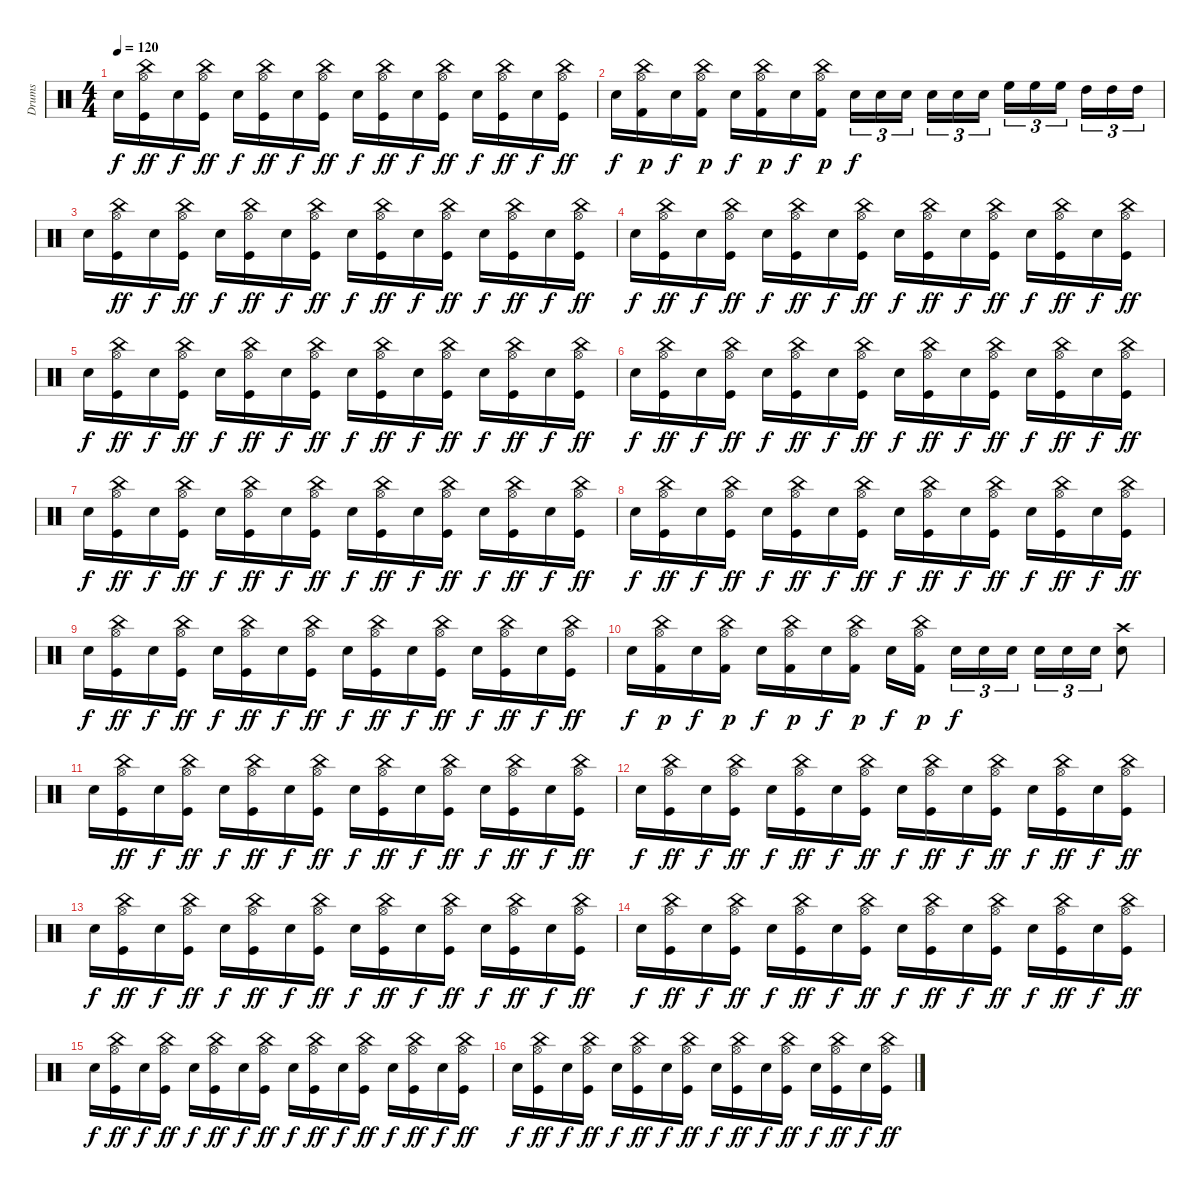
\track ("Drums" "Drums") {instrument percussion}
\staff {score}
\articulation defaults
\ts (4 4)
\tempo 120
\clef neutral
\ks c "Electric Snare (hit)".16{dy f}
("China (hit)" "Hi-Hat (open)" "Kick (hit)").16{dy ff} "Electric Snare (hit)".16{dy f} ("China (hit)" "Hi-Hat (open)" "Kick (hit)").16{dy ff} "Electric Snare (hit)".16{dy f} ("China (hit)" "Hi-Hat (open)" "Kick (hit)").16{dy ff} "Electric Snare (hit)".16{dy f} ("China (hit)" "Hi-Hat (open)" "Kick (hit)").16{dy ff} "Electric Snare (hit)".16{dy f} ("China (hit)" "Hi-Hat (open)" "Kick (hit)").16{dy ff} "Electric Snare (hit)".16{dy f} ("China (hit)" "Hi-Hat (open)" "Kick (hit)").16{dy ff} "Electric Snare (hit)".16{dy f} ("China (hit)" "Hi-Hat (open)" "Kick (hit)").16{dy ff} "Electric Snare (hit)".16{dy f} ("China (hit)" "Hi-Hat (open)" "Kick (hit)").16{dy ff} |
"Electric Snare (hit)".16{dy f} ("Hi-Hat (open)" "China (hit)" "Kick (hit) 2").16{dy p} "Electric Snare (hit)".16{dy f} ("Hi-Hat (open)" "China (hit)" "Kick (hit) 2").16{dy p} "Electric Snare (hit)".16{dy f} ("Hi-Hat (open)" "China (hit)" "Kick (hit) 2").16{dy p} "Electric Snare (hit)".16{dy f} ("Hi-Hat (open)" "China (hit)" "Kick (hit) 2").16{dy p} "Electric Snare (hit)".16{tu (3 2) dy f} "Electric Snare (hit)".16{tu (3 2)} "Electric Snare (hit)".16{tu (3 2)} "Electric Snare (hit)".16{tu (3 2)} "Electric Snare (hit)".16{tu (3 2)} "Electric Snare (hit)".16{tu (3 2)} "High Floor Tom (hit)".16{tu (3 2)} "High Floor Tom (hit)".16{tu (3 2)} "High Floor Tom (hit)".16{tu (3 2)} "High Tom (hit)".16{tu (3 2)} "High Tom (hit)".16{tu (3 2)} "High Tom (hit)".16{tu (3 2)} |
"Electric Snare (hit)".16 ("China (hit)" "Hi-Hat (open)" "Kick (hit)").16{dy ff} "Electric Snare (hit)".16{dy f} ("China (hit)" "Hi-Hat (open)" "Kick (hit)").16{dy ff} "Electric Snare (hit)".16{dy f} ("China (hit)" "Hi-Hat (open)" "Kick (hit)").16{dy ff} "Electric Snare (hit)".16{dy f} ("China (hit)" "Hi-Hat (open)" "Kick (hit)").16{dy ff} "Electric Snare (hit)".16{dy f} ("China (hit)" "Hi-Hat (open)" "Kick (hit)").16{dy ff} "Electric Snare (hit)".16{dy f} ("China (hit)" "Hi-Hat (open)" "Kick (hit)").16{dy ff} "Electric Snare (hit)".16{dy f} ("China (hit)" "Hi-Hat (open)" "Kick (hit)").16{dy ff} "Electric Snare (hit)".16{dy f} ("China (hit)" "Hi-Hat (open)" "Kick (hit)").16{dy ff} |
"Electric Snare (hit)".16{dy f} ("China (hit)" "Hi-Hat (open)" "Kick (hit)").16{dy ff} "Electric Snare (hit)".16{dy f} ("China (hit)" "Hi-Hat (open)" "Kick (hit)").16{dy ff} "Electric Snare (hit)".16{dy f} ("China (hit)" "Hi-Hat (open)" "Kick (hit)").16{dy ff} "Electric Snare (hit)".16{dy f} ("China (hit)" "Hi-Hat (open)" "Kick (hit)").16{dy ff} "Electric Snare (hit)".16{dy f} ("China (hit)" "Hi-Hat (open)" "Kick (hit)").16{dy ff} "Electric Snare (hit)".16{dy f} ("China (hit)" "Hi-Hat (open)" "Kick (hit)").16{dy ff} "Electric Snare (hit)".16{dy f} ("China (hit)" "Hi-Hat (open)" "Kick (hit)").16{dy ff} "Electric Snare (hit)".16{dy f} ("China (hit)" "Hi-Hat (open)" "Kick (hit)").16{dy ff} |
"Electric Snare (hit)".16{dy f} ("China (hit)" "Hi-Hat (open)" "Kick (hit)").16{dy ff} "Electric Snare (hit)".16{dy f} ("China (hit)" "Hi-Hat (open)" "Kick (hit)").16{dy ff} "Electric Snare (hit)".16{dy f} ("China (hit)" "Hi-Hat (open)" "Kick (hit)").16{dy ff} "Electric Snare (hit)".16{dy f} ("China (hit)" "Hi-Hat (open)" "Kick (hit)").16{dy ff} "Electric Snare (hit)".16{dy f} ("China (hit)" "Hi-Hat (open)" "Kick (hit)").16{dy ff} "Electric Snare (hit)".16{dy f} ("China (hit)" "Hi-Hat (open)" "Kick (hit)").16{dy ff} "Electric Snare (hit)".16{dy f} ("China (hit)" "Hi-Hat (open)" "Kick (hit)").16{dy ff} "Electric Snare (hit)".16{dy f} ("China (hit)" "Hi-Hat (open)" "Kick (hit)").16{dy ff} |
"Electric Snare (hit)".16{dy f} ("China (hit)" "Hi-Hat (open)" "Kick (hit)").16{dy ff} "Electric Snare (hit)".16{dy f} ("China (hit)" "Hi-Hat (open)" "Kick (hit)").16{dy ff} "Electric Snare (hit)".16{dy f} ("China (hit)" "Hi-Hat (open)" "Kick (hit)").16{dy ff} "Electric Snare (hit)".16{dy f} ("China (hit)" "Hi-Hat (open)" "Kick (hit)").16{dy ff} "Electric Snare (hit)".16{dy f} ("China (hit)" "Hi-Hat (open)" "Kick (hit)").16{dy ff} "Electric Snare (hit)".16{dy f} ("China (hit)" "Hi-Hat (open)" "Kick (hit)").16{dy ff} "Electric Snare (hit)".16{dy f} ("China (hit)" "Hi-Hat (open)" "Kick (hit)").16{dy ff} "Electric Snare (hit)".16{dy f} ("China (hit)" "Hi-Hat (open)" "Kick (hit)").16{dy ff} |
"Electric Snare (hit)".16{dy f} ("China (hit)" "Hi-Hat (open)" "Kick (hit)").16{dy ff} "Electric Snare (hit)".16{dy f} ("China (hit)" "Hi-Hat (open)" "Kick (hit)").16{dy ff} "Electric Snare (hit)".16{dy f} ("China (hit)" "Hi-Hat (open)" "Kick (hit)").16{dy ff} "Electric Snare (hit)".16{dy f} ("China (hit)" "Hi-Hat (open)" "Kick (hit)").16{dy ff} "Electric Snare (hit)".16{dy f} ("China (hit)" "Hi-Hat (open)" "Kick (hit)").16{dy ff} "Electric Snare (hit)".16{dy f} ("China (hit)" "Hi-Hat (open)" "Kick (hit)").16{dy ff} "Electric Snare (hit)".16{dy f} ("China (hit)" "Hi-Hat (open)" "Kick (hit)").16{dy ff} "Electric Snare (hit)".16{dy f} ("China (hit)" "Hi-Hat (open)" "Kick (hit)").16{dy ff} |
"Electric Snare (hit)".16{dy f} ("China (hit)" "Hi-Hat (open)" "Kick (hit)").16{dy ff} "Electric Snare (hit)".16{dy f} ("China (hit)" "Hi-Hat (open)" "Kick (hit)").16{dy ff} "Electric Snare (hit)".16{dy f} ("China (hit)" "Hi-Hat (open)" "Kick (hit)").16{dy ff} "Electric Snare (hit)".16{dy f} ("China (hit)" "Hi-Hat (open)" "Kick (hit)").16{dy ff} "Electric Snare (hit)".16{dy f} ("China (hit)" "Hi-Hat (open)" "Kick (hit)").16{dy ff} "Electric Snare (hit)".16{dy f} ("China (hit)" "Hi-Hat (open)" "Kick (hit)").16{dy ff} "Electric Snare (hit)".16{dy f} ("China (hit)" "Hi-Hat (open)" "Kick (hit)").16{dy ff} "Electric Snare (hit)".16{dy f} ("China (hit)" "Hi-Hat (open)" "Kick (hit)").16{dy ff} |
"Electric Snare (hit)".16{dy f} ("China (hit)" "Hi-Hat (open)" "Kick (hit)").16{dy ff} "Electric Snare (hit)".16{dy f} ("China (hit)" "Hi-Hat (open)" "Kick (hit)").16{dy ff} "Electric Snare (hit)".16{dy f} ("China (hit)" "Hi-Hat (open)" "Kick (hit)").16{dy ff} "Electric Snare (hit)".16{dy f} ("China (hit)" "Hi-Hat (open)" "Kick (hit)").16{dy ff} "Electric Snare (hit)".16{dy f} ("China (hit)" "Hi-Hat (open)" "Kick (hit)").16{dy ff} "Electric Snare (hit)".16{dy f} ("China (hit)" "Hi-Hat (open)" "Kick (hit)").16{dy ff} "Electric Snare (hit)".16{dy f} ("China (hit)" "Hi-Hat (open)" "Kick (hit)").16{dy ff} "Electric Snare (hit)".16{dy f} ("China (hit)" "Hi-Hat (open)" "Kick (hit)").16{dy ff} |
"Electric Snare (hit)".16{dy f} ("Hi-Hat (open)" "China (hit)" "Kick (hit) 2").16{dy p} "Electric Snare (hit)".16{dy f} ("Hi-Hat (open)" "China (hit)" "Kick (hit) 2").16{dy p} "Electric Snare (hit)".16{dy f} ("Hi-Hat (open)" "China (hit)" "Kick (hit) 2").16{dy p} "Electric Snare (hit)".16{dy f} ("Hi-Hat (open)" "China (hit)" "Kick (hit) 2").16{dy p} "Electric Snare (hit)".16{dy f} ("Hi-Hat (open)" "China (hit)" "Kick (hit) 2").16{dy p} "Electric Snare (hit)".16{tu (3 2) dy f} "Electric Snare (hit)".16{tu (3 2)} "Electric Snare (hit)".16{tu (3 2)} "Electric Snare (hit)".16{tu (3 2)} "Electric Snare (hit)".16{tu (3 2)} "Electric Snare (hit)".16{tu (3 2)} ("Crash high (hit)" "Electric Snare (hit)").8 |
"Electric Snare (hit)".16 ("China (hit)" "Hi-Hat (open)" "Kick (hit)").16{dy ff} "Electric Snare (hit)".16{dy f} ("China (hit)" "Hi-Hat (open)" "Kick (hit)").16{dy ff} "Electric Snare (hit)".16{dy f} ("China (hit)" "Hi-Hat (open)" "Kick (hit)").16{dy ff} "Electric Snare (hit)".16{dy f} ("China (hit)" "Hi-Hat (open)" "Kick (hit)").16{dy ff} "Electric Snare (hit)".16{dy f} ("China (hit)" "Hi-Hat (open)" "Kick (hit)").16{dy ff} "Electric Snare (hit)".16{dy f} ("China (hit)" "Hi-Hat (open)" "Kick (hit)").16{dy ff} "Electric Snare (hit)".16{dy f} ("China (hit)" "Hi-Hat (open)" "Kick (hit)").16{dy ff} "Electric Snare (hit)".16{dy f} ("China (hit)" "Hi-Hat (open)" "Kick (hit)").16{dy ff} |
"Electric Snare (hit)".16{dy f} ("China (hit)" "Hi-Hat (open)" "Kick (hit)").16{dy ff} "Electric Snare (hit)".16{dy f} ("China (hit)" "Hi-Hat (open)" "Kick (hit)").16{dy ff} "Electric Snare (hit)".16{dy f} ("China (hit)" "Hi-Hat (open)" "Kick (hit)").16{dy ff} "Electric Snare (hit)".16{dy f} ("China (hit)" "Hi-Hat (open)" "Kick (hit)").16{dy ff} "Electric Snare (hit)".16{dy f} ("China (hit)" "Hi-Hat (open)" "Kick (hit)").16{dy ff} "Electric Snare (hit)".16{dy f} ("China (hit)" "Hi-Hat (open)" "Kick (hit)").16{dy ff} "Electric Snare (hit)".16{dy f} ("China (hit)" "Hi-Hat (open)" "Kick (hit)").16{dy ff} "Electric Snare (hit)".16{dy f} ("China (hit)" "Hi-Hat (open)" "Kick (hit)").16{dy ff} |
"Electric Snare (hit)".16{dy f} ("China (hit)" "Hi-Hat (open)" "Kick (hit)").16{dy ff} "Electric Snare (hit)".16{dy f} ("China (hit)" "Hi-Hat (open)" "Kick (hit)").16{dy ff} "Electric Snare (hit)".16{dy f} ("China (hit)" "Hi-Hat (open)" "Kick (hit)").16{dy ff} "Electric Snare (hit)".16{dy f} ("China (hit)" "Hi-Hat (open)" "Kick (hit)").16{dy ff} "Electric Snare (hit)".16{dy f} ("China (hit)" "Hi-Hat (open)" "Kick (hit)").16{dy ff} "Electric Snare (hit)".16{dy f} ("China (hit)" "Hi-Hat (open)" "Kick (hit)").16{dy ff} "Electric Snare (hit)".16{dy f} ("China (hit)" "Hi-Hat (open)" "Kick (hit)").16{dy ff} "Electric Snare (hit)".16{dy f} ("China (hit)" "Hi-Hat (open)" "Kick (hit)").16{dy ff} |
"Electric Snare (hit)".16{dy f} ("China (hit)" "Hi-Hat (open)" "Kick (hit)").16{dy ff} "Electric Snare (hit)".16{dy f} ("China (hit)" "Hi-Hat (open)" "Kick (hit)").16{dy ff} "Electric Snare (hit)".16{dy f} ("China (hit)" "Hi-Hat (open)" "Kick (hit)").16{dy ff} "Electric Snare (hit)".16{dy f} ("China (hit)" "Hi-Hat (open)" "Kick (hit)").16{dy ff} "Electric Snare (hit)".16{dy f} ("China (hit)" "Hi-Hat (open)" "Kick (hit)").16{dy ff} "Electric Snare (hit)".16{dy f} ("China (hit)" "Hi-Hat (open)" "Kick (hit)").16{dy ff} "Electric Snare (hit)".16{dy f} ("China (hit)" "Hi-Hat (open)" "Kick (hit)").16{dy ff} "Electric Snare (hit)".16{dy f} ("China (hit)" "Hi-Hat (open)" "Kick (hit)").16{dy ff} |
"Electric Snare (hit)".16{dy f} ("China (hit)" "Hi-Hat (open)" "Kick (hit)").16{dy ff} "Electric Snare (hit)".16{dy f} ("China (hit)" "Hi-Hat (open)" "Kick (hit)").16{dy ff} "Electric Snare (hit)".16{dy f} ("China (hit)" "Hi-Hat (open)" "Kick (hit)").16{dy ff} "Electric Snare (hit)".16{dy f} ("China (hit)" "Hi-Hat (open)" "Kick (hit)").16{dy ff} "Electric Snare (hit)".16{dy f} ("China (hit)" "Hi-Hat (open)" "Kick (hit)").16{dy ff} "Electric Snare (hit)".16{dy f} ("China (hit)" "Hi-Hat (open)" "Kick (hit)").16{dy ff} "Electric Snare (hit)".16{dy f} ("China (hit)" "Hi-Hat (open)" "Kick (hit)").16{dy ff} "Electric Snare (hit)".16{dy f} ("China (hit)" "Hi-Hat (open)" "Kick (hit)").16{dy ff} |
"Electric Snare (hit)".16{dy f} ("China (hit)" "Hi-Hat (open)" "Kick (hit)").16{dy ff} "Electric Snare (hit)".16{dy f} ("China (hit)" "Hi-Hat (open)" "Kick (hit)").16{dy ff} "Electric Snare (hit)".16{dy f} ("China (hit)" "Hi-Hat (open)" "Kick (hit)").16{dy ff} "Electric Snare (hit)".16{dy f} ("China (hit)" "Hi-Hat (open)" "Kick (hit)").16{dy ff} "Electric Snare (hit)".16{dy f} ("China (hit)" "Hi-Hat (open)" "Kick (hit)").16{dy ff} "Electric Snare (hit)".16{dy f} ("China (hit)" "Hi-Hat (open)" "Kick (hit)").16{dy ff} "Electric Snare (hit)".16{dy f} ("China (hit)" "Hi-Hat (open)" "Kick (hit)").16{dy ff} "Electric Snare (hit)".16{dy f} ("China (hit)" "Hi-Hat (open)" "Kick (hit)").16{dy ff}
